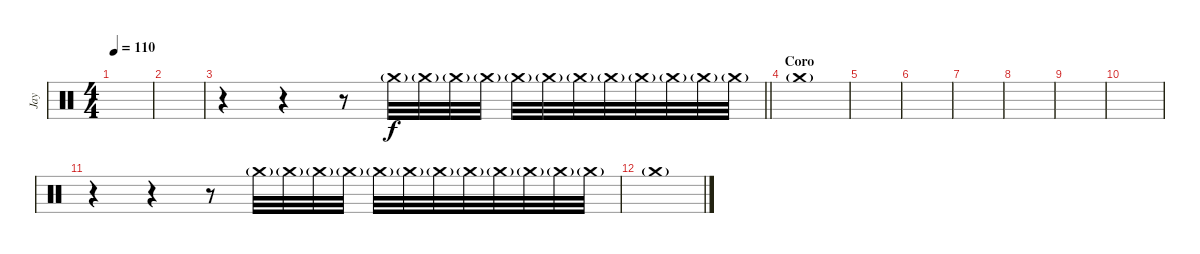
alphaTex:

\track ("Jay" "Jay") {instrument percussion}
\staff {score}
\articulation defaults
\ts (4 4)
\tempo 110
\clef neutral
\ks c
|
|
\barLineRight lightlight
r.4 r.4 r.8 "Crash medium (hit)"{g}.32{volume 4} "Crash medium (hit)"{g}.32{volume 5} "Crash medium (hit)"{g}.32 "Crash medium (hit)"{g}.32{volume 6} "Crash medium (hit)"{g}.32 "Crash medium (hit)"{g}.32{volume 7} "Crash medium (hit)"{g}.32{volume 9} "Crash medium (hit)"{g}.32{volume 9} "Crash medium (hit)"{g}.32{volume 10} "Crash medium (hit)"{g}.32{volume 10} "Crash medium (hit)"{g}.32{volume 11} "Crash medium (hit)"{g}.32{volume 12} |
\section ("" "Coro")
"Crash medium (hit)"{g}.1 |
|
|
|
|
|
|
r.4 r.4 r.8 "Crash medium (hit)"{g}.32{volume 4} "Crash medium (hit)"{g}.32{volume 5} "Crash medium (hit)"{g}.32 "Crash medium (hit)"{g}.32{volume 6} "Crash medium (hit)"{g}.32 "Crash medium (hit)"{g}.32{volume 7} "Crash medium (hit)"{g}.32{volume 9} "Crash medium (hit)"{g}.32{volume 9} "Crash medium (hit)"{g}.32{volume 10} "Crash medium (hit)"{g}.32{volume 10} "Crash medium (hit)"{g}.32{volume 11} "Crash medium (hit)"{g}.32{volume 12} |
"Crash medium (hit)"{g}.1
